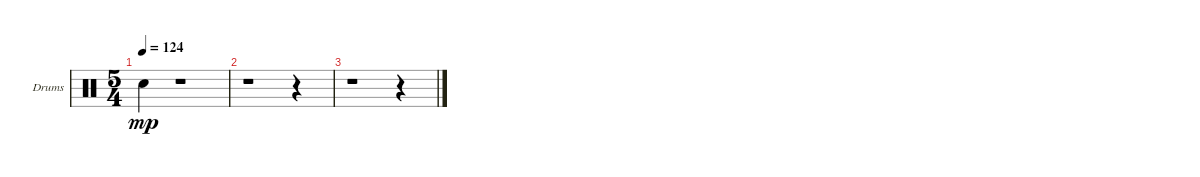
\bracketExtendMode groupsimilarinstruments
\firstSystemTrackNameOrientation horizontal
\otherSystemsTrackNameOrientation horizontal
\track ("Drumkit" "Drums") {instrument percussion}
\staff {score}
\articulation defaults
\ts (5 4)
\tempo 124
\clef neutral
\ks aminor "Snare (hit) 2".4{dy mp}
r.1 |
r.1 r.4 |
r.1 r.4
